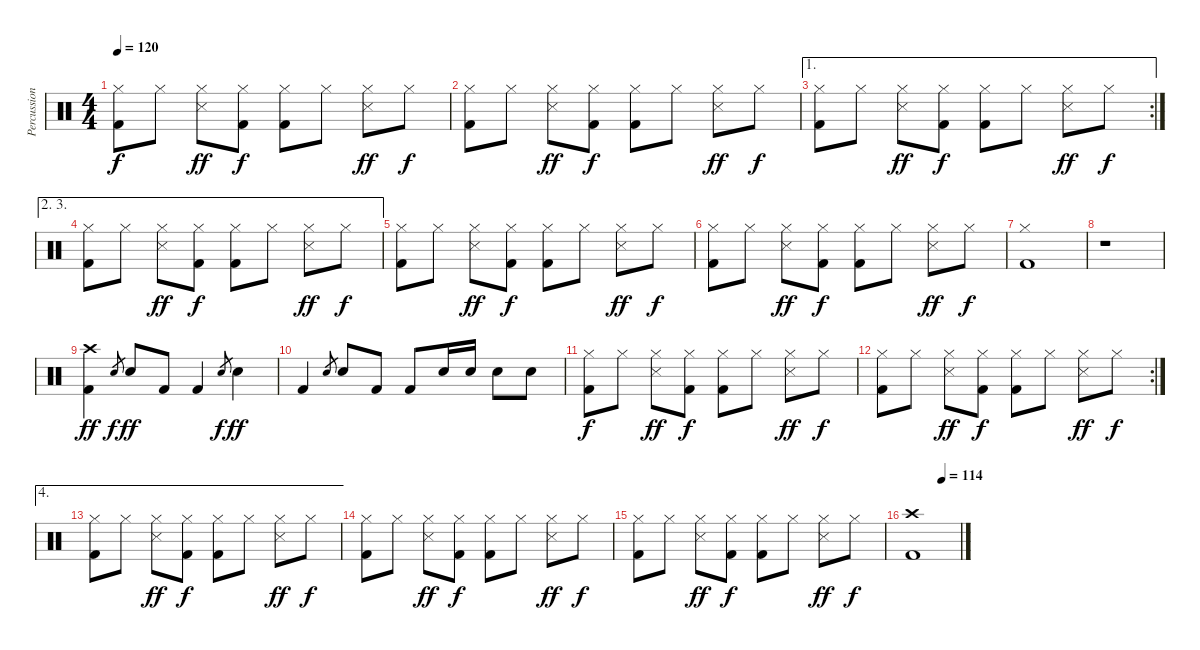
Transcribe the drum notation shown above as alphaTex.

\track ("Percussion" "Percussion") {instrument percussion}
\staff {score}
\articulation defaults
\ts (4 4)
\tempo 120
\clef neutral
\ks c
("Hi-Hat (closed)" "Kick (hit) 2").8{dy f} "Hi-Hat (closed)".8 ("Hi-Hat (closed)" "Snare (side stick) 3").8{dy ff} ("Hi-Hat (closed)" "Kick (hit) 2").8{dy f} ("Hi-Hat (closed)" "Kick (hit) 2").8 "Hi-Hat (closed)".8 ("Hi-Hat (closed)" "Snare (side stick) 3").8{dy ff} "Hi-Hat (closed)".8{dy f} |
("Hi-Hat (closed)" "Kick (hit) 2").8 "Hi-Hat (closed)".8 ("Hi-Hat (closed)" "Snare (side stick) 3").8{dy ff} ("Hi-Hat (closed)" "Kick (hit) 2").8{dy f} ("Hi-Hat (closed)" "Kick (hit) 2").8 "Hi-Hat (closed)".8 ("Hi-Hat (closed)" "Snare (side stick) 3").8{dy ff} "Hi-Hat (closed)".8{dy f} |
\ae 1
\rc 2
("Hi-Hat (closed)" "Kick (hit) 2").8 "Hi-Hat (closed)".8 ("Hi-Hat (closed)" "Snare (side stick) 3").8{dy ff} ("Hi-Hat (closed)" "Kick (hit) 2").8{dy f} ("Hi-Hat (closed)" "Kick (hit) 2").8 "Hi-Hat (closed)".8 ("Hi-Hat (closed)" "Snare (side stick) 3").8{dy ff} "Hi-Hat (closed)".8{dy f} |
\ae (2 3)
("Hi-Hat (closed)" "Kick (hit) 2").8 "Hi-Hat (closed)".8 ("Hi-Hat (closed)" "Snare (side stick) 3").8{dy ff} ("Hi-Hat (closed)" "Kick (hit) 2").8{dy f} ("Hi-Hat (closed)" "Kick (hit) 2").8 "Hi-Hat (closed)".8 ("Hi-Hat (closed)" "Snare (side stick) 3").8{dy ff} "Hi-Hat (closed)".8{dy f} |
("Hi-Hat (closed)" "Kick (hit) 2").8 "Hi-Hat (closed)".8 ("Hi-Hat (closed)" "Snare (side stick) 3").8{dy ff} ("Hi-Hat (closed)" "Kick (hit) 2").8{dy f} ("Hi-Hat (closed)" "Kick (hit) 2").8 "Hi-Hat (closed)".8 ("Hi-Hat (closed)" "Snare (side stick) 3").8{dy ff} "Hi-Hat (closed)".8{dy f} |
("Hi-Hat (closed)" "Kick (hit) 2").8 "Hi-Hat (closed)".8 ("Hi-Hat (closed)" "Snare (side stick) 3").8{dy ff} ("Hi-Hat (closed)" "Kick (hit) 2").8{dy f} ("Hi-Hat (closed)" "Kick (hit) 2").8 "Hi-Hat (closed)".8 ("Hi-Hat (closed)" "Snare (side stick) 3").8{dy ff} "Hi-Hat (closed)".8{dy f} |
("Hi-Hat (closed)" "Kick (hit) 2").1 |
r.1 |
("Crash high (hit)" "Kick (hit) 2").4{dy ff} "Snare (hit) 2".8{gr dy f} "Snare (hit) 2".8{dy ff} "Kick (hit) 2".8 "Kick (hit) 2".4 "Snare (hit) 2".8{gr dy f} "Snare (hit) 2".4{dy ff} |
"Kick (hit) 2".4 "Snare (hit) 2".8{gr} "Snare (hit) 2".8 "Kick (hit) 2".8 "Kick (hit) 2".8 "Snare (hit) 2".16 "Snare (hit) 2".16 "Snare (hit) 2".8 "Snare (hit) 2".8 |
("Hi-Hat (closed)" "Kick (hit) 2").8{dy f} "Hi-Hat (closed)".8 ("Hi-Hat (closed)" "Snare (side stick) 3").8{dy ff} ("Hi-Hat (closed)" "Kick (hit) 2").8{dy f} ("Hi-Hat (closed)" "Kick (hit) 2").8 "Hi-Hat (closed)".8 ("Hi-Hat (closed)" "Snare (side stick) 3").8{dy ff} "Hi-Hat (closed)".8{dy f} |
\rc 2
("Hi-Hat (closed)" "Kick (hit) 2").8 "Hi-Hat (closed)".8 ("Hi-Hat (closed)" "Snare (side stick) 3").8{dy ff} ("Hi-Hat (closed)" "Kick (hit) 2").8{dy f} ("Hi-Hat (closed)" "Kick (hit) 2").8 "Hi-Hat (closed)".8 ("Hi-Hat (closed)" "Snare (side stick) 3").8{dy ff} "Hi-Hat (closed)".8{dy f} |
\ae 4
("Hi-Hat (closed)" "Kick (hit) 2").8 "Hi-Hat (closed)".8 ("Hi-Hat (closed)" "Snare (side stick) 3").8{dy ff} ("Hi-Hat (closed)" "Kick (hit) 2").8{dy f} ("Hi-Hat (closed)" "Kick (hit) 2").8 "Hi-Hat (closed)".8 ("Hi-Hat (closed)" "Snare (side stick) 3").8{dy ff} "Hi-Hat (closed)".8{dy f} |
("Hi-Hat (closed)" "Kick (hit) 2").8 "Hi-Hat (closed)".8 ("Hi-Hat (closed)" "Snare (side stick) 3").8{dy ff} ("Hi-Hat (closed)" "Kick (hit) 2").8{dy f} ("Hi-Hat (closed)" "Kick (hit) 2").8 "Hi-Hat (closed)".8 ("Hi-Hat (closed)" "Snare (side stick) 3").8{dy ff} "Hi-Hat (closed)".8{dy f} |
("Hi-Hat (closed)" "Kick (hit) 2").8 "Hi-Hat (closed)".8 ("Hi-Hat (closed)" "Snare (side stick) 3").8{dy ff} ("Hi-Hat (closed)" "Kick (hit) 2").8{dy f} ("Hi-Hat (closed)" "Kick (hit) 2").8 "Hi-Hat (closed)".8 ("Hi-Hat (closed)" "Snare (side stick) 3").8{dy ff} "Hi-Hat (closed)".8{dy f} |
\tempo (114 0.625)
("Crash high (hit)" "Kick (hit) 2").1
